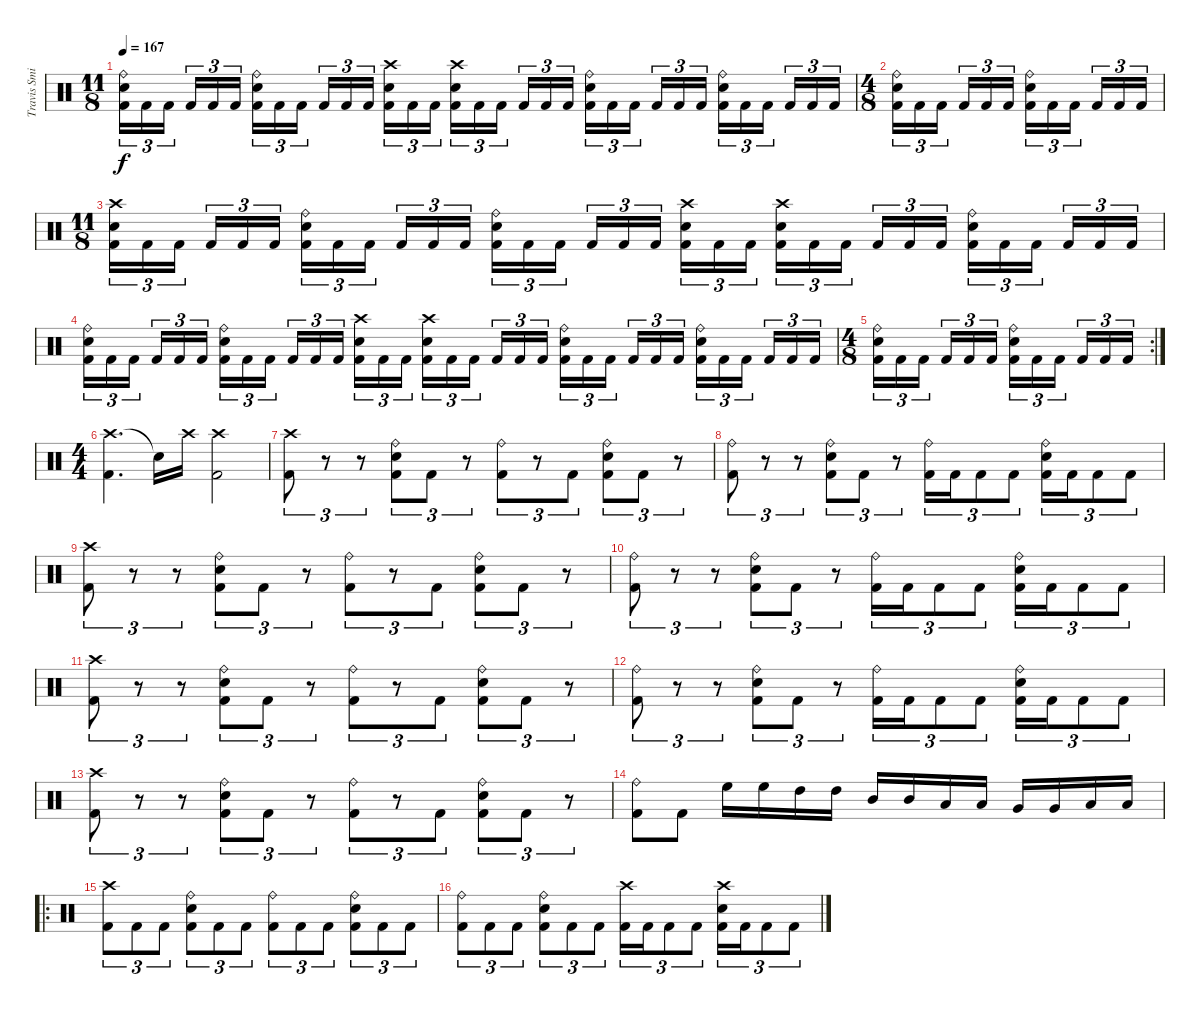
\track ("Travis Smith" "Travis Smi") {instrument percussion}
\staff {score}
\articulation defaults
\ts (11 8)
\tempo 167
\clef neutral
\ks c
("Ride (bell)" "Snare (hit) 2" "Kick (hit) 2").16{tu (3 2) dy f} "Kick (hit) 2".16{tu (3 2)} "Kick (hit) 2".16{tu (3 2)} "Kick (hit) 2".16{tu (3 2)} "Kick (hit) 2".16{tu (3 2)} "Kick (hit) 2".16{tu (3 2)} ("Ride (bell)" "Snare (hit) 2" "Kick (hit) 2").16{tu (3 2)} "Kick (hit) 2".16{tu (3 2)} "Kick (hit) 2".16{tu (3 2)} "Kick (hit) 2".16{tu (3 2)} "Kick (hit) 2".16{tu (3 2)} "Kick (hit) 2".16{tu (3 2)} ("Crash high (hit)" "Snare (hit) 2" "Kick (hit) 2").16{tu (3 2)} "Kick (hit) 2".16{tu (3 2)} "Kick (hit) 2".16{tu (3 2)} ("Crash high (hit)" "Snare (hit) 2" "Kick (hit) 2").16{tu (3 2)} "Kick (hit) 2".16{tu (3 2)} "Kick (hit) 2".16{tu (3 2)} "Kick (hit) 2".16{tu (3 2)} "Kick (hit) 2".16{tu (3 2)} "Kick (hit) 2".16{tu (3 2)} ("Ride (bell)" "Snare (hit) 2" "Kick (hit) 2").16{tu (3 2)} "Kick (hit) 2".16{tu (3 2)} "Kick (hit) 2".16{tu (3 2)} "Kick (hit) 2".16{tu (3 2)} "Kick (hit) 2".16{tu (3 2)} "Kick (hit) 2".16{tu (3 2)} ("Ride (bell)" "Snare (hit) 2" "Kick (hit) 2").16{tu (3 2)} "Kick (hit) 2".16{tu (3 2)} "Kick (hit) 2".16{tu (3 2)} "Kick (hit) 2".16{tu (3 2)} "Kick (hit) 2".16{tu (3 2)} "Kick (hit) 2".16{tu (3 2)} |
\ts (4 8)
("Ride (bell)" "Snare (hit) 2" "Kick (hit) 2").16{tu (3 2)} "Kick (hit) 2".16{tu (3 2)} "Kick (hit) 2".16{tu (3 2)} "Kick (hit) 2".16{tu (3 2)} "Kick (hit) 2".16{tu (3 2)} "Kick (hit) 2".16{tu (3 2)} ("Ride (bell)" "Snare (hit) 2" "Kick (hit) 2").16{tu (3 2)} "Kick (hit) 2".16{tu (3 2)} "Kick (hit) 2".16{tu (3 2)} "Kick (hit) 2".16{tu (3 2)} "Kick (hit) 2".16{tu (3 2)} "Kick (hit) 2".16{tu (3 2)} |
\ts (11 8)
("Crash high (hit)" "Snare (hit) 2" "Kick (hit) 2").16{tu (3 2)} "Kick (hit) 2".16{tu (3 2)} "Kick (hit) 2".16{tu (3 2)} "Kick (hit) 2".16{tu (3 2)} "Kick (hit) 2".16{tu (3 2)} "Kick (hit) 2".16{tu (3 2)} ("Ride (bell)" "Snare (hit) 2" "Kick (hit) 2").16{tu (3 2)} "Kick (hit) 2".16{tu (3 2)} "Kick (hit) 2".16{tu (3 2)} "Kick (hit) 2".16{tu (3 2)} "Kick (hit) 2".16{tu (3 2)} "Kick (hit) 2".16{tu (3 2)} ("Ride (bell)" "Snare (hit) 2" "Kick (hit) 2").16{tu (3 2)} "Kick (hit) 2".16{tu (3 2)} "Kick (hit) 2".16{tu (3 2)} "Kick (hit) 2".16{tu (3 2)} "Kick (hit) 2".16{tu (3 2)} "Kick (hit) 2".16{tu (3 2)} ("Crash high (hit)" "Snare (hit) 2" "Kick (hit) 2").16{tu (3 2)} "Kick (hit) 2".16{tu (3 2)} "Kick (hit) 2".16{tu (3 2)} ("Crash high (hit)" "Snare (hit) 2" "Kick (hit) 2").16{tu (3 2)} "Kick (hit) 2".16{tu (3 2)} "Kick (hit) 2".16{tu (3 2)} "Kick (hit) 2".16{tu (3 2)} "Kick (hit) 2".16{tu (3 2)} "Kick (hit) 2".16{tu (3 2)} ("Ride (bell)" "Snare (hit) 2" "Kick (hit) 2").16{tu (3 2)} "Kick (hit) 2".16{tu (3 2)} "Kick (hit) 2".16{tu (3 2)} "Kick (hit) 2".16{tu (3 2)} "Kick (hit) 2".16{tu (3 2)} "Kick (hit) 2".16{tu (3 2)} |
("Ride (bell)" "Snare (hit) 2" "Kick (hit) 2").16{tu (3 2)} "Kick (hit) 2".16{tu (3 2)} "Kick (hit) 2".16{tu (3 2)} "Kick (hit) 2".16{tu (3 2)} "Kick (hit) 2".16{tu (3 2)} "Kick (hit) 2".16{tu (3 2)} ("Ride (bell)" "Snare (hit) 2" "Kick (hit) 2").16{tu (3 2)} "Kick (hit) 2".16{tu (3 2)} "Kick (hit) 2".16{tu (3 2)} "Kick (hit) 2".16{tu (3 2)} "Kick (hit) 2".16{tu (3 2)} "Kick (hit) 2".16{tu (3 2)} ("Crash high (hit)" "Snare (hit) 2" "Kick (hit) 2").16{tu (3 2)} "Kick (hit) 2".16{tu (3 2)} "Kick (hit) 2".16{tu (3 2)} ("Crash high (hit)" "Snare (hit) 2" "Kick (hit) 2").16{tu (3 2)} "Kick (hit) 2".16{tu (3 2)} "Kick (hit) 2".16{tu (3 2)} "Kick (hit) 2".16{tu (3 2)} "Kick (hit) 2".16{tu (3 2)} "Kick (hit) 2".16{tu (3 2)} ("Ride (bell)" "Snare (hit) 2" "Kick (hit) 2").16{tu (3 2)} "Kick (hit) 2".16{tu (3 2)} "Kick (hit) 2".16{tu (3 2)} "Kick (hit) 2".16{tu (3 2)} "Kick (hit) 2".16{tu (3 2)} "Kick (hit) 2".16{tu (3 2)} ("Ride (bell)" "Snare (hit) 2" "Kick (hit) 2").16{tu (3 2)} "Kick (hit) 2".16{tu (3 2)} "Kick (hit) 2".16{tu (3 2)} "Kick (hit) 2".16{tu (3 2)} "Kick (hit) 2".16{tu (3 2)} "Kick (hit) 2".16{tu (3 2)} |
\rc 2
\ts (4 8)
("Ride (bell)" "Snare (hit) 2" "Kick (hit) 2").16{tu (3 2)} "Kick (hit) 2".16{tu (3 2)} "Kick (hit) 2".16{tu (3 2)} "Kick (hit) 2".16{tu (3 2)} "Kick (hit) 2".16{tu (3 2)} "Kick (hit) 2".16{tu (3 2)} ("Ride (bell)" "Snare (hit) 2" "Kick (hit) 2").16{tu (3 2)} "Kick (hit) 2".16{tu (3 2)} "Kick (hit) 2".16{tu (3 2)} "Kick (hit) 2".16{tu (3 2)} "Kick (hit) 2".16{tu (3 2)} "Kick (hit) 2".16{tu (3 2)} |
\ts (4 4)
("Crash high (hit)" "Kick (hit) 2").4{d} "Snare (hit)"{t}.16 "Crash high (hit)".16{volume 0} ("Crash high (hit)" "Kick (hit) 2").2{volume 16} |
("Crash high (hit)" "Kick (hit) 2").8{tu (3 2)} r.8{tu (3 2)} r.8{tu (3 2)} ("Ride (bell)" "Snare (hit) 2" "Kick (hit) 2").8{tu (3 2)} "Kick (hit) 2".8{tu (3 2)} r.8{tu (3 2)} ("Ride (bell)" "Kick (hit) 2").8{tu (3 2)} r.8{tu (3 2)} "Kick (hit) 2".8{tu (3 2)} ("Ride (bell)" "Snare (hit) 2" "Kick (hit) 2").8{tu (3 2)} "Kick (hit) 2".8{tu (3 2)} r.8{tu (3 2)} |
("Ride (bell)" "Kick (hit) 2").8{tu (3 2)} r.8{tu (3 2)} r.8{tu (3 2)} ("Ride (bell)" "Snare (hit) 2" "Kick (hit) 2").8{tu (3 2)} "Kick (hit) 2".8{tu (3 2)} r.8{tu (3 2)} ("Ride (bell)" "Kick (hit) 2").16{tu (3 2)} "Kick (hit) 2".16{tu (3 2)} "Kick (hit) 2".8{tu (3 2)} "Kick (hit) 2".8{tu (3 2)} ("Ride (bell)" "Snare (hit) 2" "Kick (hit) 2").16{tu (3 2)} "Kick (hit) 2".16{tu (3 2)} "Kick (hit) 2".8{tu (3 2)} "Kick (hit) 2".8{tu (3 2)} |
("Crash high (hit)" "Kick (hit) 2").8{tu (3 2)} r.8{tu (3 2)} r.8{tu (3 2)} ("Ride (bell)" "Snare (hit) 2" "Kick (hit) 2").8{tu (3 2)} "Kick (hit) 2".8{tu (3 2)} r.8{tu (3 2)} ("Ride (bell)" "Kick (hit) 2").8{tu (3 2)} r.8{tu (3 2)} "Kick (hit) 2".8{tu (3 2)} ("Ride (bell)" "Snare (hit) 2" "Kick (hit) 2").8{tu (3 2)} "Kick (hit) 2".8{tu (3 2)} r.8{tu (3 2)} |
("Ride (bell)" "Kick (hit) 2").8{tu (3 2)} r.8{tu (3 2)} r.8{tu (3 2)} ("Ride (bell)" "Snare (hit) 2" "Kick (hit) 2").8{tu (3 2)} "Kick (hit) 2".8{tu (3 2)} r.8{tu (3 2)} ("Ride (bell)" "Kick (hit) 2").16{tu (3 2)} "Kick (hit) 2".16{tu (3 2)} "Kick (hit) 2".8{tu (3 2)} "Kick (hit) 2".8{tu (3 2)} ("Ride (bell)" "Snare (hit) 2" "Kick (hit) 2").16{tu (3 2)} "Kick (hit) 2".16{tu (3 2)} "Kick (hit) 2".8{tu (3 2)} "Kick (hit) 2".8{tu (3 2)} |
("Crash high (hit)" "Kick (hit) 2").8{tu (3 2)} r.8{tu (3 2)} r.8{tu (3 2)} ("Ride (bell)" "Snare (hit) 2" "Kick (hit) 2").8{tu (3 2)} "Kick (hit) 2".8{tu (3 2)} r.8{tu (3 2)} ("Ride (bell)" "Kick (hit) 2").8{tu (3 2)} r.8{tu (3 2)} "Kick (hit) 2".8{tu (3 2)} ("Ride (bell)" "Snare (hit) 2" "Kick (hit) 2").8{tu (3 2)} "Kick (hit) 2".8{tu (3 2)} r.8{tu (3 2)} |
("Ride (bell)" "Kick (hit) 2").8{tu (3 2)} r.8{tu (3 2)} r.8{tu (3 2)} ("Ride (bell)" "Snare (hit) 2" "Kick (hit) 2").8{tu (3 2)} "Kick (hit) 2".8{tu (3 2)} r.8{tu (3 2)} ("Ride (bell)" "Kick (hit) 2").16{tu (3 2)} "Kick (hit) 2".16{tu (3 2)} "Kick (hit) 2".8{tu (3 2)} "Kick (hit) 2".8{tu (3 2)} ("Ride (bell)" "Snare (hit) 2" "Kick (hit) 2").16{tu (3 2)} "Kick (hit) 2".16{tu (3 2)} "Kick (hit) 2".8{tu (3 2)} "Kick (hit) 2".8{tu (3 2)} |
("Crash high (hit)" "Kick (hit) 2").8{tu (3 2)} r.8{tu (3 2)} r.8{tu (3 2)} ("Ride (bell)" "Snare (hit) 2" "Kick (hit) 2").8{tu (3 2)} "Kick (hit) 2".8{tu (3 2)} r.8{tu (3 2)} ("Ride (bell)" "Kick (hit) 2").8{tu (3 2)} r.8{tu (3 2)} "Kick (hit) 2".8{tu (3 2)} ("Ride (bell)" "Snare (hit) 2" "Kick (hit) 2").8{tu (3 2)} "Kick (hit) 2".8{tu (3 2)} r.8{tu (3 2)} |
("Ride (bell)" "Kick (hit) 2").8 "Kick (hit) 2".8 "High Floor Tom (hit)".16 "High Floor Tom (hit)".16 "High Tom (hit)".16 "High Tom (hit)".16 "Mid Tom (hit)".16 "Mid Tom (hit)".16 "Low Tom (hit)".16 "Low Tom (hit)".16 "Very Low Tom (hit)".16 "Very Low Tom (hit)".16 "Low Floor Tom (hit)".16 "Low Floor Tom (hit)".16 |
\ro
("Crash high (hit)" "Kick (hit) 2").8{tu (3 2)} "Kick (hit) 2".8{tu (3 2)} "Kick (hit) 2".8{tu (3 2)} ("Ride (bell)" "Snare (hit) 2" "Kick (hit) 2").8{tu (3 2)} "Kick (hit) 2".8{tu (3 2)} "Kick (hit) 2".8{tu (3 2)} ("Ride (bell)" "Kick (hit) 2").8{tu (3 2)} "Kick (hit) 2".8{tu (3 2)} "Kick (hit) 2".8{tu (3 2)} ("Ride (bell)" "Snare (hit) 2" "Kick (hit) 2").8{tu (3 2)} "Kick (hit) 2".8{tu (3 2)} "Kick (hit) 2".8{tu (3 2)} |
("Ride (bell)" "Kick (hit) 2").8{tu (3 2)} "Kick (hit) 2".8{tu (3 2)} "Kick (hit) 2".8{tu (3 2)} ("Ride (bell)" "Snare (hit) 2" "Kick (hit) 2").8{tu (3 2)} "Kick (hit) 2".8{tu (3 2)} "Kick (hit) 2".8{tu (3 2)} ("Crash high (hit)" "Kick (hit) 2").16{tu (3 2)} "Kick (hit) 2".16{tu (3 2)} "Kick (hit) 2".8{tu (3 2)} "Kick (hit) 2".8{tu (3 2)} ("Crash high (hit)" "Snare (hit) 2" "Kick (hit) 2").16{tu (3 2)} "Kick (hit) 2".16{tu (3 2)} "Kick (hit) 2".8{tu (3 2)} "Kick (hit) 2".8{tu (3 2)}
